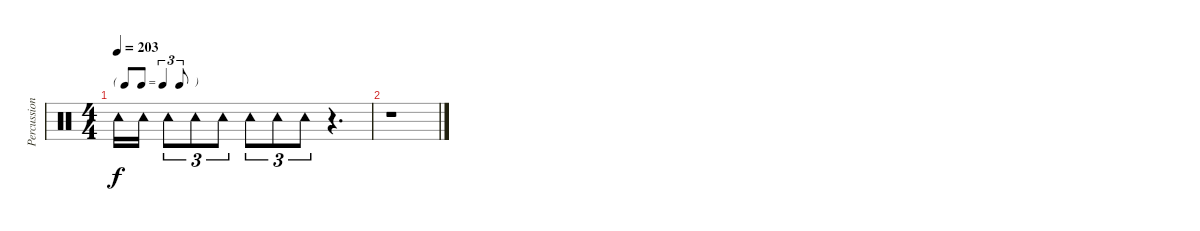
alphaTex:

\track ("Percussion" "Percussion") {instrument percussion}
\staff {score}
\articulation defaults
\ts (4 4)
\tf triplet8th
\tempo 203
\clef neutral
\ks c "Tambourine (hit)".16{dy f} "Tambourine (hit)".16 "Tambourine (hit)".8{tu (3 2)} "Tambourine (hit)".8{tu (3 2)} "Tambourine (hit)".8{tu (3 2)} "Tambourine (hit)".8{tu (3 2)} "Tambourine (hit)".8{tu (3 2)} "Tambourine (hit)".8{tu (3 2)}
r.4{d} |
r.1
